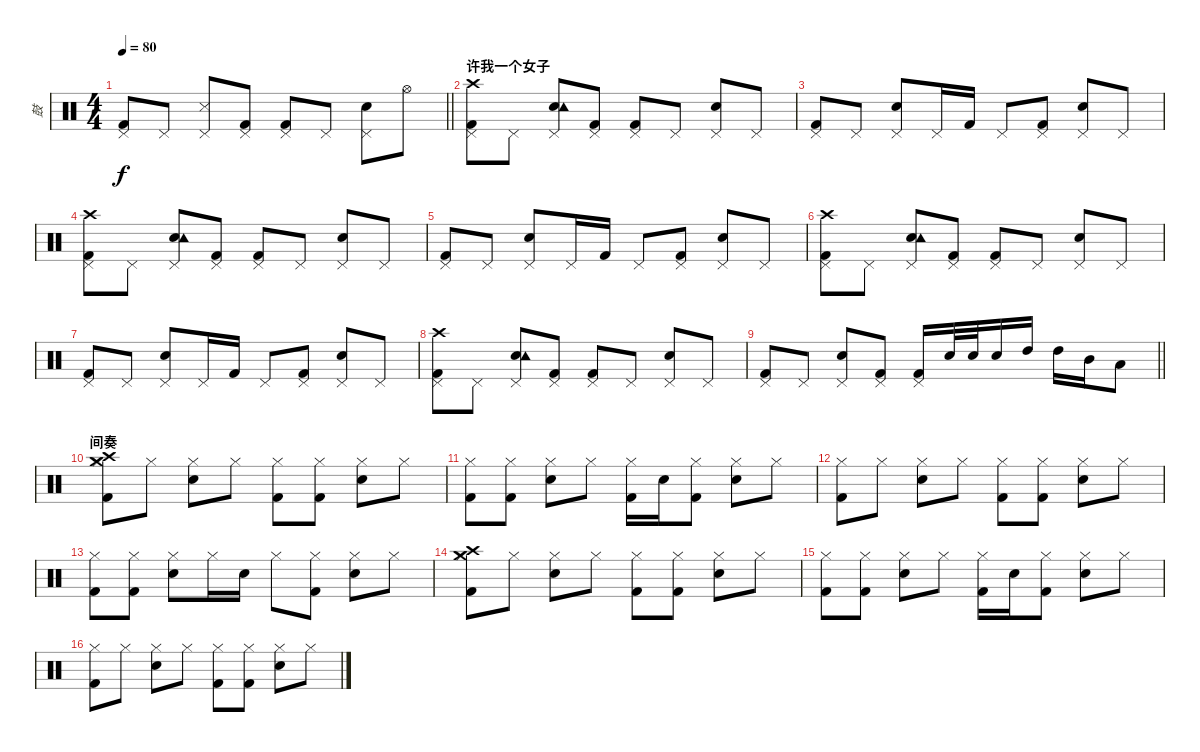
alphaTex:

\track ("鼓" "鼓") {instrument percussion}
\staff {score}
\articulation defaults
\ts (4 4)
\tempo 80
\clef neutral
\barLineRight lightlight
\ks c
("Pedal Hi-Hat (hit)" "Kick (hit) 2").8{dy f} "Pedal Hi-Hat (hit)".8 ("Pedal Hi-Hat (hit)" "Metronome (hit)").8 ("Pedal Hi-Hat (hit)" "Kick (hit) 2").8 ("Pedal Hi-Hat (hit)" "Kick (hit) 2").8 "Pedal Hi-Hat (hit)".8 ("Pedal Hi-Hat (hit)" "Snare (hit) 2").8 "Hi-Hat (open)".8 |
\section ("" "许我一个女子")
("Pedal Hi-Hat (hit)" "Crash high (hit)" "Kick (hit) 2").8 "Pedal Hi-Hat (hit)".8 ("Pedal Hi-Hat (hit)" "Snare (hit) 2" "Tambourine (hit)").8 ("Pedal Hi-Hat (hit)" "Kick (hit) 2").8 ("Pedal Hi-Hat (hit)" "Kick (hit) 2").8 "Pedal Hi-Hat (hit)".8 ("Pedal Hi-Hat (hit)" "Snare (hit) 2").8 "Pedal Hi-Hat (hit)".8 |
("Pedal Hi-Hat (hit)" "Kick (hit) 2").8 "Pedal Hi-Hat (hit)".8 ("Pedal Hi-Hat (hit)" "Snare (hit) 2").8 "Pedal Hi-Hat (hit)".16 "Kick (hit) 2".16 "Pedal Hi-Hat (hit)".8 ("Pedal Hi-Hat (hit)" "Kick (hit) 2").8 ("Pedal Hi-Hat (hit)" "Snare (hit) 2").8 "Pedal Hi-Hat (hit)".8 |
("Pedal Hi-Hat (hit)" "Crash high (hit)" "Kick (hit) 2").8 "Pedal Hi-Hat (hit)".8 ("Pedal Hi-Hat (hit)" "Snare (hit) 2" "Tambourine (hit)").8 ("Pedal Hi-Hat (hit)" "Kick (hit) 2").8 ("Pedal Hi-Hat (hit)" "Kick (hit) 2").8 "Pedal Hi-Hat (hit)".8 ("Pedal Hi-Hat (hit)" "Snare (hit) 2").8 "Pedal Hi-Hat (hit)".8 |
("Pedal Hi-Hat (hit)" "Kick (hit) 2").8 "Pedal Hi-Hat (hit)".8 ("Pedal Hi-Hat (hit)" "Snare (hit) 2").8 "Pedal Hi-Hat (hit)".16 "Kick (hit) 2".16 "Pedal Hi-Hat (hit)".8 ("Pedal Hi-Hat (hit)" "Kick (hit) 2").8 ("Pedal Hi-Hat (hit)" "Snare (hit) 2").8 "Pedal Hi-Hat (hit)".8 |
("Pedal Hi-Hat (hit)" "Crash high (hit)" "Kick (hit) 2").8 "Pedal Hi-Hat (hit)".8 ("Pedal Hi-Hat (hit)" "Snare (hit) 2" "Tambourine (hit)").8 ("Pedal Hi-Hat (hit)" "Kick (hit) 2").8 ("Pedal Hi-Hat (hit)" "Kick (hit) 2").8 "Pedal Hi-Hat (hit)".8 ("Pedal Hi-Hat (hit)" "Snare (hit) 2").8 "Pedal Hi-Hat (hit)".8 |
("Pedal Hi-Hat (hit)" "Kick (hit) 2").8 "Pedal Hi-Hat (hit)".8 ("Pedal Hi-Hat (hit)" "Snare (hit) 2").8 "Pedal Hi-Hat (hit)".16 "Kick (hit) 2".16 "Pedal Hi-Hat (hit)".8 ("Pedal Hi-Hat (hit)" "Kick (hit) 2").8 ("Pedal Hi-Hat (hit)" "Snare (hit) 2").8 "Pedal Hi-Hat (hit)".8 |
("Pedal Hi-Hat (hit)" "Crash high (hit)" "Kick (hit) 2").8 "Pedal Hi-Hat (hit)".8 ("Pedal Hi-Hat (hit)" "Snare (hit) 2" "Tambourine (hit)").8 ("Pedal Hi-Hat (hit)" "Kick (hit) 2").8 ("Pedal Hi-Hat (hit)" "Kick (hit) 2").8 "Pedal Hi-Hat (hit)".8 ("Pedal Hi-Hat (hit)" "Snare (hit) 2").8 "Pedal Hi-Hat (hit)".8 |
\barLineRight lightlight
("Pedal Hi-Hat (hit)" "Kick (hit) 2").8 "Pedal Hi-Hat (hit)".8 ("Pedal Hi-Hat (hit)" "Snare (hit) 2").8 ("Pedal Hi-Hat (hit)" "Kick (hit) 2").8 ("Pedal Hi-Hat (hit)" "Kick (hit) 2").16 "Electric Snare (hit)".32 "Electric Snare (hit)".32 "Electric Snare (hit)".16 "High Tom (hit)".16 "High Tom (hit)".16 "Mid Tom (hit)".16 "Low Tom (hit)".8 |
\section ("" "间奏")
("Hi-Hat (closed)" "Crash medium (hit)" "Crash high (hit)" "Kick (hit) 2").8 "Hi-Hat (closed)".8 ("Hi-Hat (closed)" "Electric Snare (hit)").8 "Hi-Hat (closed)".8 ("Hi-Hat (closed)" "Kick (hit) 2").8 ("Hi-Hat (closed)" "Kick (hit) 2").8 ("Hi-Hat (closed)" "Electric Snare (hit)").8 "Hi-Hat (closed)".8 |
("Hi-Hat (closed)" "Kick (hit) 2").8 ("Hi-Hat (closed)" "Kick (hit) 2").8 ("Hi-Hat (closed)" "Electric Snare (hit)").8 "Hi-Hat (closed)".8 ("Hi-Hat (closed)" "Kick (hit) 2").16 "Electric Snare (hit)".16 ("Hi-Hat (closed)" "Kick (hit) 2").8 ("Hi-Hat (closed)" "Electric Snare (hit)").8 "Hi-Hat (closed)".8 |
("Hi-Hat (closed)" "Kick (hit) 2").8 "Hi-Hat (closed)".8 ("Hi-Hat (closed)" "Electric Snare (hit)").8 "Hi-Hat (closed)".8 ("Hi-Hat (closed)" "Kick (hit) 2").8 ("Hi-Hat (closed)" "Kick (hit) 2").8 ("Hi-Hat (closed)" "Electric Snare (hit)").8 "Hi-Hat (closed)".8 |
("Hi-Hat (closed)" "Kick (hit) 2").8 ("Hi-Hat (closed)" "Kick (hit) 2").8 ("Hi-Hat (closed)" "Electric Snare (hit)").8 "Hi-Hat (closed)".16 "Electric Snare (hit)".16 "Hi-Hat (closed)".8 ("Hi-Hat (closed)" "Kick (hit) 2").8 ("Hi-Hat (closed)" "Electric Snare (hit)").8 "Hi-Hat (closed)".8 |
("Hi-Hat (closed)" "Crash medium (hit)" "Crash high (hit)" "Kick (hit) 2").8 "Hi-Hat (closed)".8 ("Hi-Hat (closed)" "Electric Snare (hit)").8 "Hi-Hat (closed)".8 ("Hi-Hat (closed)" "Kick (hit) 2").8 ("Hi-Hat (closed)" "Kick (hit) 2").8 ("Hi-Hat (closed)" "Electric Snare (hit)").8 "Hi-Hat (closed)".8 |
("Hi-Hat (closed)" "Kick (hit) 2").8 ("Hi-Hat (closed)" "Kick (hit) 2").8 ("Hi-Hat (closed)" "Electric Snare (hit)").8 "Hi-Hat (closed)".8 ("Hi-Hat (closed)" "Kick (hit) 2").16 "Electric Snare (hit)".16 ("Hi-Hat (closed)" "Kick (hit) 2").8 ("Hi-Hat (closed)" "Electric Snare (hit)").8 "Hi-Hat (closed)".8 |
("Hi-Hat (closed)" "Kick (hit) 2").8 "Hi-Hat (closed)".8 ("Hi-Hat (closed)" "Electric Snare (hit)").8 "Hi-Hat (closed)".8 ("Hi-Hat (closed)" "Kick (hit) 2").8 ("Hi-Hat (closed)" "Kick (hit) 2").8 ("Hi-Hat (closed)" "Electric Snare (hit)").8 "Hi-Hat (closed)".8
